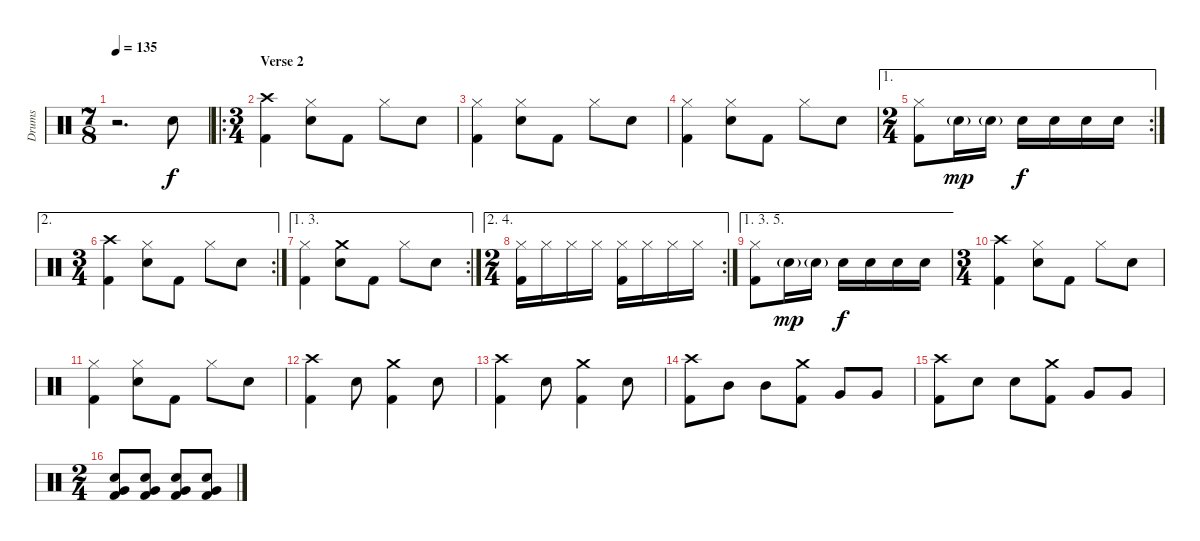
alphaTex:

\track ("Drums" "Drums") {instrument percussion}
\staff {score}
\articulation defaults
\ts (7 8)
\tempo 135
\clef neutral
\ks c
r.2{d dy f} "Electric Snare (hit)".8 |
\ro
\ts (3 4)
\section ("" "Verse 2")
("Crash high (hit)" "Kick (hit) 2").4 ("Hi-Hat (closed)" "Electric Snare (hit)").8 "Kick (hit) 2".8 "Hi-Hat (closed)".8 "Electric Snare (hit)".8 |
("Hi-Hat (closed)" "Kick (hit) 2").4 ("Hi-Hat (closed)" "Electric Snare (hit)").8 "Kick (hit) 2".8 "Hi-Hat (closed)".8 "Electric Snare (hit)".8 |
("Hi-Hat (closed)" "Kick (hit) 2").4 ("Hi-Hat (closed)" "Electric Snare (hit)").8 "Kick (hit) 2".8 "Hi-Hat (closed)".8 "Electric Snare (hit)".8 |
\ae 1
\rc 2
\ts (2 4)
("Hi-Hat (closed)" "Kick (hit) 2").8 "Electric Snare (hit)"{g}.16{dy mp} "Electric Snare (hit)"{g}.16 "Electric Snare (hit)".16{dy f} "Electric Snare (hit)".16 "Electric Snare (hit)".16 "Electric Snare (hit)".16 |
\ae 2
\rc 2
\ts (3 4)
("Crash high (hit)" "Kick (hit) 2").4 ("Hi-Hat (closed)" "Electric Snare (hit)").8 "Kick (hit) 2".8 "Hi-Hat (closed)".8 "Electric Snare (hit)".8 |
\ae (1 3)
\rc 2
("Hi-Hat (closed)" "Kick (hit) 2").4 ("Crash medium (hit)" "Electric Snare (hit)").8 "Kick (hit) 2".8 "Hi-Hat (closed)".8 "Electric Snare (hit)".8 |
\ae (2 4)
\rc 2
\ts (2 4)
("Hi-Hat (closed)" "Kick (hit) 2").16 "Hi-Hat (closed)".16 "Hi-Hat (closed)".16 "Hi-Hat (closed)".16 ("Hi-Hat (closed)" "Kick (hit) 2").16 "Hi-Hat (closed)".16 "Hi-Hat (closed)".16 "Hi-Hat (closed)".16 |
\ae (1 3 5)
("Hi-Hat (closed)" "Kick (hit) 2").8 "Electric Snare (hit)"{g}.16{dy mp} "Electric Snare (hit)"{g}.16 "Electric Snare (hit)".16{dy f} "Electric Snare (hit)".16 "Electric Snare (hit)".16 "Electric Snare (hit)".16 |
\ts (3 4)
("Crash high (hit)" "Kick (hit) 2").4 ("Hi-Hat (closed)" "Electric Snare (hit)").8 "Kick (hit) 2".8 "Hi-Hat (closed)".8 "Electric Snare (hit)".8 |
("Hi-Hat (closed)" "Kick (hit) 2").4 ("Hi-Hat (closed)" "Electric Snare (hit)").8 "Kick (hit) 2".8 "Hi-Hat (closed)".8 "Electric Snare (hit)".8 |
("Crash high (hit)" "Kick (hit) 2").4 "Electric Snare (hit)".8 ("Crash medium (hit)" "Kick (hit) 2").4 "Electric Snare (hit)".8 |
("Crash high (hit)" "Kick (hit) 2").4 "Electric Snare (hit)".8 ("Crash medium (hit)" "Kick (hit) 2").4 "Electric Snare (hit)".8 |
("Crash high (hit)" "Kick (hit) 2").8 "Mid Tom (hit)".8 "Mid Tom (hit)".8 ("Crash medium (hit)" "Kick (hit) 2").8 "Very Low Tom (hit)".8 "Very Low Tom (hit)".8 |
("Crash high (hit)" "Kick (hit) 2").8 "Electric Snare (hit)".8 "Electric Snare (hit)".8 ("Crash medium (hit)" "Kick (hit) 2").8 "Very Low Tom (hit)".8 "Very Low Tom (hit)".8 |
\ts (2 4)
("Electric Snare (hit)" "Very Low Tom (hit)" "Kick (hit) 2").8 ("Electric Snare (hit)" "Very Low Tom (hit)" "Kick (hit) 2").8 ("Electric Snare (hit)" "Very Low Tom (hit)" "Kick (hit) 2").8 ("Electric Snare (hit)" "Very Low Tom (hit)" "Kick (hit) 2").8
